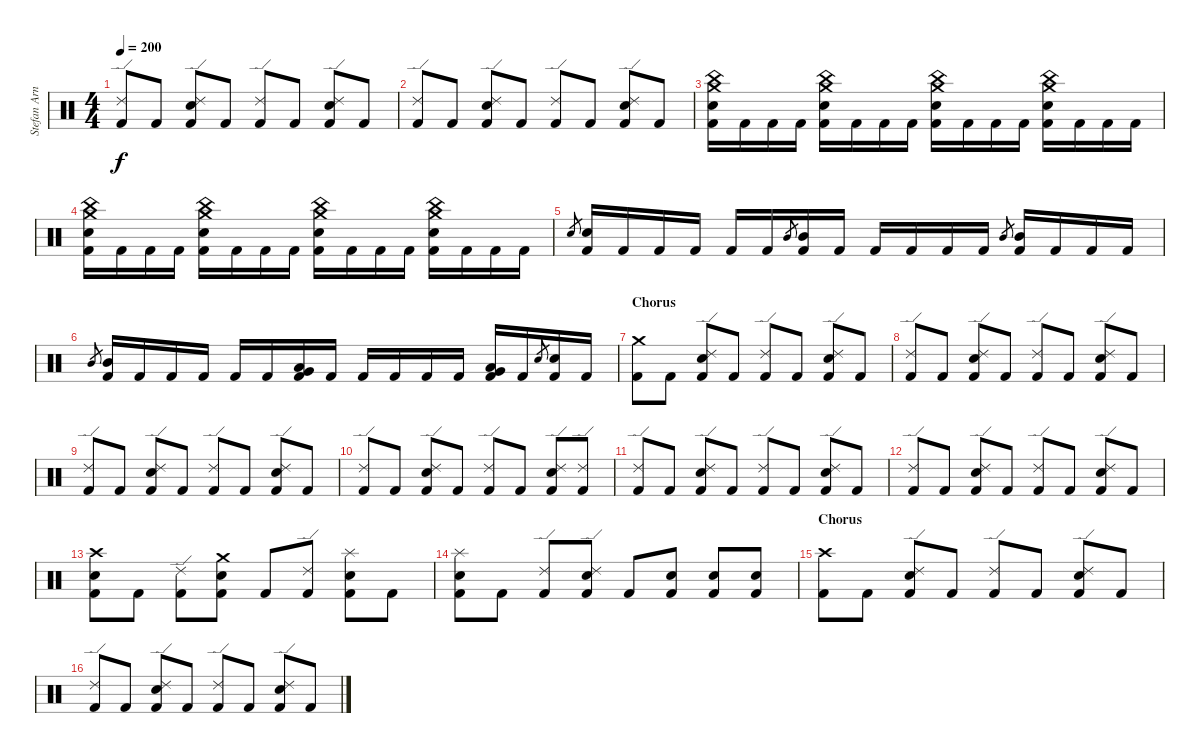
\track ("Stefan Arnold" "Stefan Arn") {instrument percussion}
\staff {score}
\articulation defaults
\ts (4 4)
\tempo 200
\clef neutral
\ks c
("Ride (edge) 2" "Kick (hit) 2").8{dy f} "Kick (hit) 2".8 ("Ride (edge) 2" "Electric Snare (hit)" "Kick (hit) 2").8 "Kick (hit) 2".8 ("Ride (edge) 2" "Kick (hit) 2").8 "Kick (hit) 2".8 ("Ride (edge) 2" "Electric Snare (hit)" "Kick (hit) 2").8 "Kick (hit) 2".8 |
("Ride (edge) 2" "Kick (hit) 2").8 "Kick (hit) 2".8 ("Ride (edge) 2" "Electric Snare (hit)" "Kick (hit) 2").8 "Kick (hit) 2".8 ("Ride (edge) 2" "Kick (hit) 2").8 "Kick (hit) 2".8 ("Ride (edge) 2" "Electric Snare (hit)" "Kick (hit) 2").8 "Kick (hit) 2".8 |
("Crash medium (hit)" "China (hit)" "Electric Snare (hit)" "Kick (hit) 2").16 "Kick (hit) 2".16 "Kick (hit) 2".16 "Kick (hit) 2".16 ("Crash medium (hit)" "China (hit)" "Electric Snare (hit)" "Kick (hit) 2").16 "Kick (hit) 2".16 "Kick (hit) 2".16 "Kick (hit) 2".16 ("Crash medium (hit)" "China (hit)" "Electric Snare (hit)" "Kick (hit) 2").16 "Kick (hit) 2".16 "Kick (hit) 2".16 "Kick (hit) 2".16 ("Crash medium (hit)" "China (hit)" "Electric Snare (hit)" "Kick (hit) 2").16 "Kick (hit) 2".16 "Kick (hit) 2".16 "Kick (hit) 2".16 |
("Crash medium (hit)" "China (hit)" "Electric Snare (hit)" "Kick (hit) 2").16 "Kick (hit) 2".16 "Kick (hit) 2".16 "Kick (hit) 2".16 ("Crash medium (hit)" "China (hit)" "Electric Snare (hit)" "Kick (hit) 2").16 "Kick (hit) 2".16 "Kick (hit) 2".16 "Kick (hit) 2".16 ("Crash medium (hit)" "China (hit)" "Electric Snare (hit)" "Kick (hit) 2").16 "Kick (hit) 2".16 "Kick (hit) 2".16 "Kick (hit) 2".16 ("Crash medium (hit)" "China (hit)" "Electric Snare (hit)" "Kick (hit) 2").16 "Kick (hit) 2".16 "Kick (hit) 2".16 "Kick (hit) 2".16 |
"Electric Snare (hit)".8{gr} ("Electric Snare (hit)" "Kick (hit) 2").16 "Kick (hit) 2".16 "Kick (hit) 2".16 "Kick (hit) 2".16 "Kick (hit) 2".16 "Kick (hit) 2".16 "Mid Tom (hit)".8{gr} ("Mid Tom (hit)" "Kick (hit) 2").16 "Kick (hit) 2".16 "Kick (hit) 2".16 "Kick (hit) 2".16 "Kick (hit) 2".16 "Kick (hit) 2".16 "Mid Tom (hit)".8{gr} ("Mid Tom (hit)" "Kick (hit) 2").16 "Kick (hit) 2".16 "Kick (hit) 2".16 "Kick (hit) 2".16 |
"Mid Tom (hit)".8{gr} ("Mid Tom (hit)" "Kick (hit) 2").16 "Kick (hit) 2".16 "Kick (hit) 2".16 "Kick (hit) 2".16 "Kick (hit) 2".16 "Kick (hit) 2".16 ("Low Tom (hit)" "Very Low Tom (hit)" "Kick (hit) 2").16 "Kick (hit) 2".16 "Kick (hit) 2".16 "Kick (hit) 2".16 "Kick (hit) 2".16 "Kick (hit) 2".16 ("Low Tom (hit)" "Very Low Tom (hit)" "Kick (hit) 2").16 "Kick (hit) 2".16 "Electric Snare (hit)".8{gr} ("Electric Snare (hit)" "Kick (hit) 2").16 "Kick (hit) 2".16 |
\section ("" "Chorus")
("Crash medium (hit)" "Kick (hit) 2").8 "Kick (hit) 2".8 ("Ride (edge) 2" "Electric Snare (hit)" "Kick (hit) 2").8 "Kick (hit) 2".8 ("Ride (edge) 2" "Kick (hit) 2").8 "Kick (hit) 2".8 ("Ride (edge) 2" "Electric Snare (hit)" "Kick (hit) 2").8 "Kick (hit) 2".8 |
("Ride (edge) 2" "Kick (hit) 2").8 "Kick (hit) 2".8 ("Ride (edge) 2" "Electric Snare (hit)" "Kick (hit) 2").8 "Kick (hit) 2".8 ("Ride (edge) 2" "Kick (hit) 2").8 "Kick (hit) 2".8 ("Ride (edge) 2" "Electric Snare (hit)" "Kick (hit) 2").8 "Kick (hit) 2".8 |
("Ride (edge) 2" "Kick (hit) 2").8 "Kick (hit) 2".8 ("Ride (edge) 2" "Electric Snare (hit)" "Kick (hit) 2").8 "Kick (hit) 2".8 ("Ride (edge) 2" "Kick (hit) 2").8 "Kick (hit) 2".8 ("Ride (edge) 2" "Electric Snare (hit)" "Kick (hit) 2").8 "Kick (hit) 2".8 |
("Ride (edge) 2" "Kick (hit) 2").8 "Kick (hit) 2".8 ("Ride (edge) 2" "Electric Snare (hit)" "Kick (hit) 2").8 "Kick (hit) 2".8 ("Ride (edge) 2" "Kick (hit) 2").8 "Kick (hit) 2".8 ("Ride (edge) 2" "Electric Snare (hit)" "Kick (hit) 2").8 ("Ride (edge) 2" "Kick (hit) 2").8 |
("Ride (edge) 2" "Kick (hit) 2").8 "Kick (hit) 2".8 ("Ride (edge) 2" "Electric Snare (hit)" "Kick (hit) 2").8 "Kick (hit) 2".8 ("Ride (edge) 2" "Kick (hit) 2").8 "Kick (hit) 2".8 ("Ride (edge) 2" "Electric Snare (hit)" "Kick (hit) 2").8 "Kick (hit) 2".8 |
("Ride (edge) 2" "Kick (hit) 2").8 "Kick (hit) 2".8 ("Ride (edge) 2" "Electric Snare (hit)" "Kick (hit) 2").8 "Kick (hit) 2".8 ("Ride (edge) 2" "Kick (hit) 2").8 "Kick (hit) 2".8 ("Ride (edge) 2" "Electric Snare (hit)" "Kick (hit) 2").8 "Kick (hit) 2".8 |
("Crash high (hit)" "Electric Snare (hit)" "Kick (hit) 2").8 "Kick (hit) 2".8 ("Ride (edge) 2" "Kick (hit) 2").8 ("Crash medium (hit)" "Electric Snare (hit)" "Kick (hit) 2").8 "Kick (hit) 2".8 ("Ride (edge) 2" "Kick (hit) 2").8 ("Splash (hit)" "Electric Snare (hit)" "Kick (hit) 2").8 "Kick (hit) 2".8 |
("Splash (hit)" "Electric Snare (hit)" "Kick (hit) 2").8 "Kick (hit) 2".8 ("Ride (edge) 2" "Kick (hit) 2").8 ("Ride (edge) 2" "Electric Snare (hit)" "Kick (hit) 2").8 "Kick (hit) 2".8 ("Electric Snare (hit)" "Kick (hit) 2").8 ("Electric Snare (hit)" "Kick (hit) 2").8 ("Electric Snare (hit)" "Kick (hit) 2").8 |
\section ("" "Chorus")
("Crash high (hit)" "Kick (hit) 2").8 "Kick (hit) 2".8 ("Ride (edge) 2" "Electric Snare (hit)" "Kick (hit) 2").8 "Kick (hit) 2".8 ("Ride (edge) 2" "Kick (hit) 2").8 "Kick (hit) 2".8 ("Ride (edge) 2" "Electric Snare (hit)" "Kick (hit) 2").8 "Kick (hit) 2".8 |
("Ride (edge) 2" "Kick (hit) 2").8 "Kick (hit) 2".8 ("Ride (edge) 2" "Electric Snare (hit)" "Kick (hit) 2").8 "Kick (hit) 2".8 ("Ride (edge) 2" "Kick (hit) 2").8 "Kick (hit) 2".8 ("Ride (edge) 2" "Electric Snare (hit)" "Kick (hit) 2").8 "Kick (hit) 2".8
